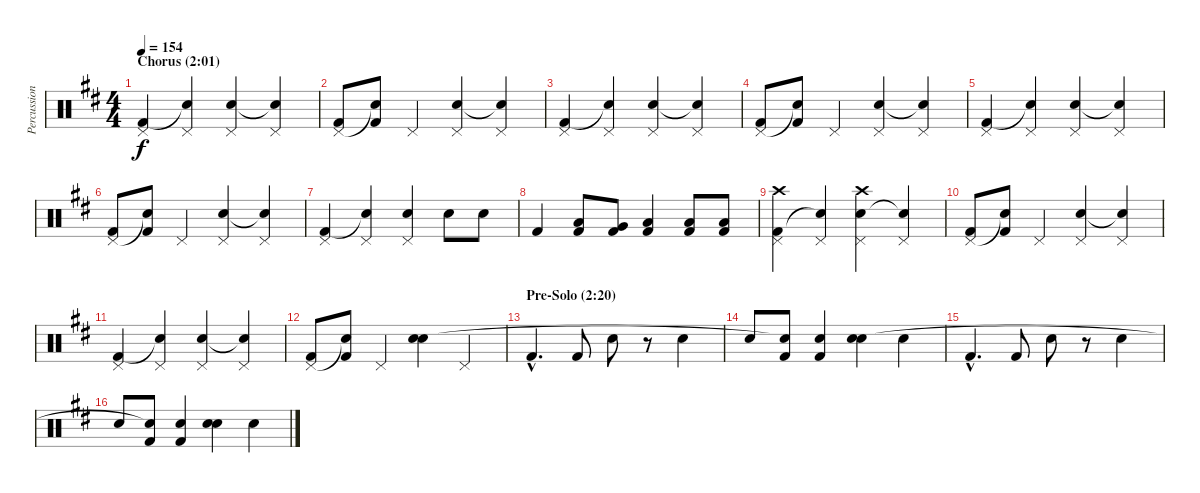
\track ("Percussion" "Percussion") {instrument percussion}
\staff {score}
\articulation defaults
\ts (4 4)
\section ("" "Chorus (2:01)")
\tempo 154
\clef neutral
\ks d
("Kick (hit) 2" "Pedal Hi-Hat (hit)").4{dy f} ("Snare (hit)"{t} "Pedal Hi-Hat (hit)").4 ("Electric Snare (hit)" "Pedal Hi-Hat (hit)").4 ("Snare (hit)"{t} "Pedal Hi-Hat (hit)").4 |
("Kick (hit) 2" "Pedal Hi-Hat (hit)").8 ("Kick (hit) 2" "Snare (hit)"{t}).8 "Pedal Hi-Hat (hit)".4 ("Electric Snare (hit)" "Pedal Hi-Hat (hit)").4 ("Snare (hit)"{t} "Pedal Hi-Hat (hit)").4 |
("Kick (hit) 2" "Pedal Hi-Hat (hit)").4 ("Snare (hit)"{t} "Pedal Hi-Hat (hit)").4 ("Electric Snare (hit)" "Pedal Hi-Hat (hit)").4 ("Snare (hit)"{t} "Pedal Hi-Hat (hit)").4 |
("Kick (hit) 2" "Pedal Hi-Hat (hit)").8 ("Kick (hit) 2" "Snare (hit)"{t}).8 "Pedal Hi-Hat (hit)".4 ("Electric Snare (hit)" "Pedal Hi-Hat (hit)").4 ("Snare (hit)"{t} "Pedal Hi-Hat (hit)").4 |
("Kick (hit) 2" "Pedal Hi-Hat (hit)").4 ("Snare (hit)"{t} "Pedal Hi-Hat (hit)").4 ("Electric Snare (hit)" "Pedal Hi-Hat (hit)").4 ("Snare (hit)"{t} "Pedal Hi-Hat (hit)").4 |
("Kick (hit) 2" "Pedal Hi-Hat (hit)").8 ("Kick (hit) 2" "Snare (hit)"{t}).8 "Pedal Hi-Hat (hit)".4 ("Electric Snare (hit)" "Pedal Hi-Hat (hit)").4 ("Snare (hit)"{t} "Pedal Hi-Hat (hit)").4 |
("Kick (hit) 2" "Pedal Hi-Hat (hit)").4 ("Snare (hit) 2"{t} "Pedal Hi-Hat (hit)").4 ("Electric Snare (hit)" "Pedal Hi-Hat (hit)").4 "Electric Snare (hit)".8 "Electric Snare (hit)".8 |
"Kick (hit) 2".4 ("Kick (hit) 2" "Low Tom (hit)").8 ("Kick (hit) 2" "Very Low Tom (hit)").8 ("Kick (hit) 2" "Low Floor Tom (hit)").4 ("Kick (hit) 2" "Low Floor Tom (hit)").8 ("Kick (hit) 2" "Low Floor Tom (hit)").8 |
("Kick (hit) 2" "Pedal Hi-Hat (hit)" "Crash high (hit)").4 ("Snare (hit)"{t} "Pedal Hi-Hat (hit)").4 ("Electric Snare (hit)" "Pedal Hi-Hat (hit)" "Crash high (hit)").4 ("Snare (hit)"{t} "Pedal Hi-Hat (hit)").4 |
("Kick (hit) 2" "Pedal Hi-Hat (hit)").8 ("Kick (hit) 2" "Snare (hit)"{t}).8 "Pedal Hi-Hat (hit)".4 ("Electric Snare (hit)" "Pedal Hi-Hat (hit)").4 ("Snare (hit)"{t} "Pedal Hi-Hat (hit)").4 |
("Kick (hit) 2" "Pedal Hi-Hat (hit)").4 ("Snare (hit)"{t} "Pedal Hi-Hat (hit)").4 ("Electric Snare (hit)" "Pedal Hi-Hat (hit)").4 ("Snare (hit)"{t} "Pedal Hi-Hat (hit)").4 |
("Kick (hit) 2" "Pedal Hi-Hat (hit)").8 ("Kick (hit) 2" "Snare (hit)"{t}).8 "Pedal Hi-Hat (hit)".4 ("Electric Snare (hit)" "Electric Snare (hit)").4 "Pedal Hi-Hat (hit)".4 |
\section ("" "Pre-Solo (2:20)")
"Kick (hit) 2"{hac}.4{d} "Kick (hit) 2".8 "Electric Snare (hit)".8 r.8 "Metronome (bell)".4 |
"Metronome (bell)".8 ("Kick (hit) 2" "Snare (hit)"{t}).8 ("Kick (hit) 2" "Metronome (bell)").4 ("Electric Snare (hit)" "Metronome (bell)").4 "Metronome (bell)".4 |
"Kick (hit) 2"{hac}.4{d} "Kick (hit) 2".8 "Electric Snare (hit)".8 r.8 "Metronome (bell)".4 |
"Metronome (bell)".8 ("Kick (hit) 2" "Snare (hit)"{t}).8 ("Kick (hit) 2" "Metronome (bell)").4 ("Electric Snare (hit)" "Metronome (bell)").4 "Metronome (bell)".4
